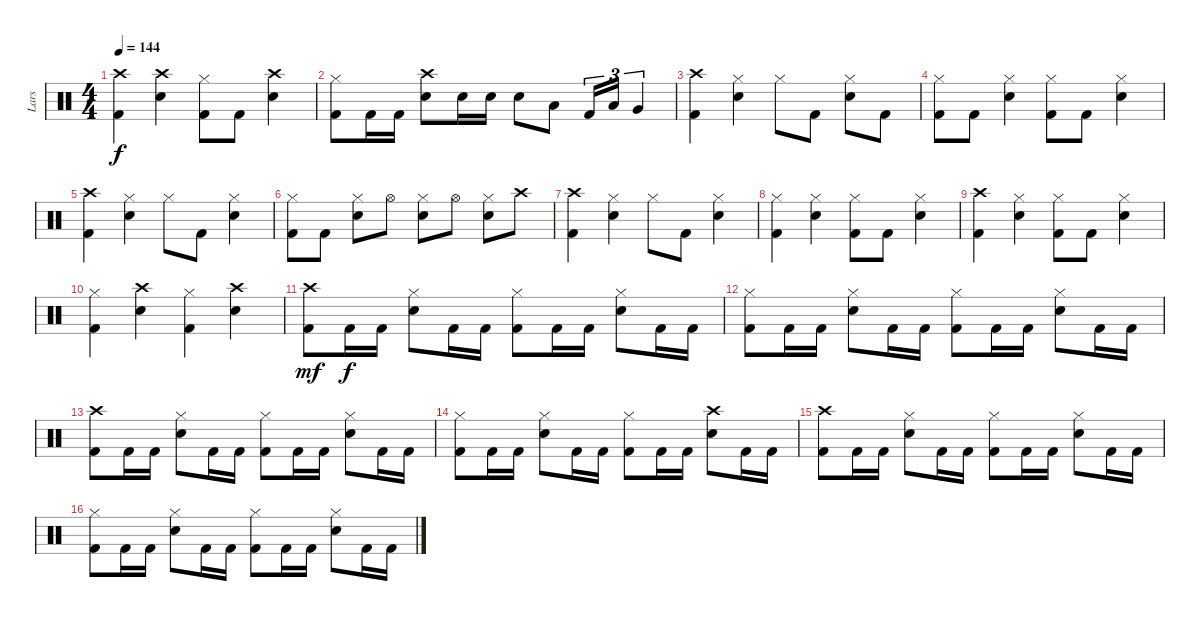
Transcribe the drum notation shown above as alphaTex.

\track ("Lars" "Lars") {instrument percussion}
\staff {score}
\articulation defaults
\ts (4 4)
\tempo 144
\clef neutral
\ks c
("Crash high (hit)" "Kick (hit) 2").4{dy f} ("Crash high (hit)" "Snare (hit) 2").4 ("Hi-Hat (closed)" "Kick (hit) 2").8 "Kick (hit) 2".8 ("Crash high (hit)" "Snare (hit) 2").4 |
("Hi-Hat (closed)" "Kick (hit) 2").8 "Kick (hit) 2".16 "Kick (hit) 2".16 ("Crash high (hit)" "Snare (hit) 2").8 "Snare (hit) 2".16 "Snare (hit) 2".16 "Snare (hit) 2".8 "Low Tom (hit)".8 "Kick (hit) 2".16{tu (3 2)} "Low Tom (hit)".16{tu (3 2)} "Very Low Tom (hit)".4{tu (3 2)} |
("Crash high (hit)" "Kick (hit) 2").4 ("Hi-Hat (closed)" "Snare (hit) 2").4 "Hi-Hat (closed)".8 "Kick (hit) 2".8 ("Hi-Hat (closed)" "Snare (hit) 2").8 "Kick (hit) 2".8 |
("Hi-Hat (closed)" "Kick (hit) 2").8 "Kick (hit) 2".8 ("Hi-Hat (closed)" "Snare (hit) 2").4 ("Hi-Hat (closed)" "Kick (hit) 2").8 "Kick (hit) 2".8 ("Hi-Hat (closed)" "Snare (hit) 2").4 |
("Crash high (hit)" "Kick (hit) 2").4 ("Hi-Hat (closed)" "Snare (hit) 2").4 "Hi-Hat (closed)".8 "Kick (hit) 2".8 ("Hi-Hat (closed)" "Snare (hit) 2").4 |
("Hi-Hat (closed)" "Kick (hit) 2").8 "Kick (hit) 2".8 ("Hi-Hat (closed)" "Snare (hit) 2").8 "Hi-Hat (open)".8 ("Hi-Hat (closed)" "Snare (hit) 2").8 "Hi-Hat (open)".8 ("Hi-Hat (closed)" "Snare (hit) 2").8 "Crash high (hit)".8 |
("Crash high (hit)" "Kick (hit) 2").4 ("Hi-Hat (closed)" "Snare (hit) 2").4 "Hi-Hat (closed)".8 "Kick (hit) 2".8 ("Hi-Hat (closed)" "Snare (hit) 2").4 |
("Hi-Hat (closed)" "Kick (hit) 2").4 ("Hi-Hat (closed)" "Snare (hit) 2").4 ("Hi-Hat (closed)" "Kick (hit) 2").8 "Kick (hit) 2".8 ("Hi-Hat (closed)" "Snare (hit) 2").4 |
("Crash high (hit)" "Kick (hit) 2").4 ("Hi-Hat (closed)" "Snare (hit) 2").4 ("Hi-Hat (closed)" "Kick (hit) 2").8 "Kick (hit) 2".8 ("Hi-Hat (closed)" "Snare (hit) 2").4 |
("Hi-Hat (closed)" "Kick (hit) 2").4 ("Crash high (hit)" "Snare (hit) 2").4 ("Hi-Hat (closed)" "Kick (hit) 2").4 ("Crash high (hit)" "Snare (hit) 2").4 |
("Crash high (hit)" "Kick (hit) 2").8{dy mf} "Kick (hit) 2".16{dy f} "Kick (hit) 2".16 ("Hi-Hat (closed)" "Snare (hit) 2").8 "Kick (hit) 2".16 "Kick (hit) 2".16 ("Hi-Hat (closed)" "Kick (hit) 2").8 "Kick (hit) 2".16 "Kick (hit) 2".16 ("Hi-Hat (closed)" "Snare (hit) 2").8 "Kick (hit) 2".16 "Kick (hit) 2".16 |
("Hi-Hat (closed)" "Kick (hit) 2").8 "Kick (hit) 2".16 "Kick (hit) 2".16 ("Hi-Hat (closed)" "Snare (hit) 2").8 "Kick (hit) 2".16 "Kick (hit) 2".16 ("Hi-Hat (closed)" "Kick (hit) 2").8 "Kick (hit) 2".16 "Kick (hit) 2".16 ("Hi-Hat (closed)" "Snare (hit) 2").8 "Kick (hit) 2".16 "Kick (hit) 2".16 |
("Crash high (hit)" "Kick (hit) 2").8 "Kick (hit) 2".16 "Kick (hit) 2".16 ("Hi-Hat (closed)" "Snare (hit) 2").8 "Kick (hit) 2".16 "Kick (hit) 2".16 ("Hi-Hat (closed)" "Kick (hit) 2").8 "Kick (hit) 2".16 "Kick (hit) 2".16 ("Hi-Hat (closed)" "Snare (hit) 2").8 "Kick (hit) 2".16 "Kick (hit) 2".16 |
("Hi-Hat (closed)" "Kick (hit) 2").8 "Kick (hit) 2".16 "Kick (hit) 2".16 ("Hi-Hat (closed)" "Snare (hit) 2").8 "Kick (hit) 2".16 "Kick (hit) 2".16 ("Hi-Hat (closed)" "Kick (hit) 2").8 "Kick (hit) 2".16 "Kick (hit) 2".16 ("Crash high (hit)" "Snare (hit) 2").8 "Kick (hit) 2".16 "Kick (hit) 2".16 |
("Crash high (hit)" "Kick (hit) 2").8 "Kick (hit) 2".16 "Kick (hit) 2".16 ("Hi-Hat (closed)" "Snare (hit) 2").8 "Kick (hit) 2".16 "Kick (hit) 2".16 ("Hi-Hat (closed)" "Kick (hit) 2").8 "Kick (hit) 2".16 "Kick (hit) 2".16 ("Hi-Hat (closed)" "Snare (hit) 2").8 "Kick (hit) 2".16 "Kick (hit) 2".16 |
("Hi-Hat (closed)" "Kick (hit) 2").8 "Kick (hit) 2".16 "Kick (hit) 2".16 ("Hi-Hat (closed)" "Snare (hit) 2").8 "Kick (hit) 2".16 "Kick (hit) 2".16 ("Hi-Hat (closed)" "Kick (hit) 2").8 "Kick (hit) 2".16 "Kick (hit) 2".16 ("Hi-Hat (closed)" "Snare (hit) 2").8 "Kick (hit) 2".16 "Kick (hit) 2".16
